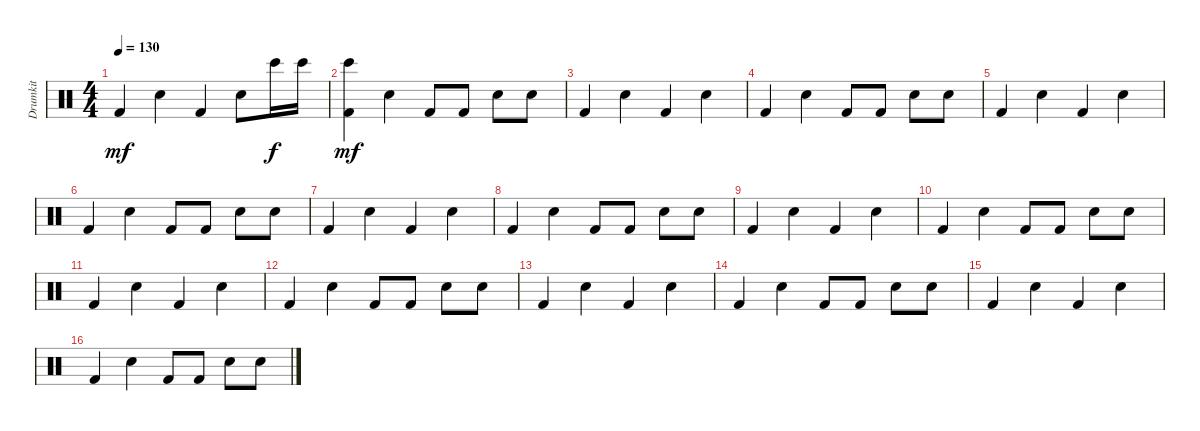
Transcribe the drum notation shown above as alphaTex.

\track ("Drumkit" "Drumkit") {instrument percussion}
\staff {score}
\articulation defaults
\ts (4 4)
\tempo 130
\clef neutral
\ks c "Kick (hit) 2".4{dy mf} "Snare (hit) 2".4 "Kick (hit) 2".4 "Snare (hit) 2".8 "Bongo High (hit)".16{dy f} "Bongo High (hit)".16
|
("Bongo High (hit)" "Kick (hit) 2").4{dy mf} "Snare (hit) 2".4 "Kick (hit) 2".8 "Kick (hit) 2".8 "Snare (hit) 2".8 "Snare (hit) 2".8 |
"Kick (hit) 2".4 "Snare (hit) 2".4 "Kick (hit) 2".4 "Snare (hit) 2".4 |
"Kick (hit) 2".4 "Snare (hit) 2".4 "Kick (hit) 2".8 "Kick (hit) 2".8 "Snare (hit) 2".8 "Snare (hit) 2".8 |
"Kick (hit) 2".4 "Snare (hit) 2".4 "Kick (hit) 2".4 "Snare (hit) 2".4 |
"Kick (hit) 2".4 "Snare (hit) 2".4 "Kick (hit) 2".8 "Kick (hit) 2".8 "Snare (hit) 2".8 "Snare (hit) 2".8 |
"Kick (hit) 2".4 "Snare (hit) 2".4 "Kick (hit) 2".4 "Snare (hit) 2".4 |
"Kick (hit) 2".4 "Snare (hit) 2".4 "Kick (hit) 2".8 "Kick (hit) 2".8 "Snare (hit) 2".8 "Snare (hit) 2".8 |
"Kick (hit) 2".4 "Snare (hit) 2".4 "Kick (hit) 2".4 "Snare (hit) 2".4 |
"Kick (hit) 2".4 "Snare (hit) 2".4 "Kick (hit) 2".8 "Kick (hit) 2".8 "Snare (hit) 2".8 "Snare (hit) 2".8 |
"Kick (hit) 2".4 "Snare (hit) 2".4 "Kick (hit) 2".4 "Snare (hit) 2".4 |
"Kick (hit) 2".4 "Snare (hit) 2".4 "Kick (hit) 2".8 "Kick (hit) 2".8 "Snare (hit) 2".8 "Snare (hit) 2".8 |
"Kick (hit) 2".4 "Snare (hit) 2".4 "Kick (hit) 2".4 "Snare (hit) 2".4 |
"Kick (hit) 2".4 "Snare (hit) 2".4 "Kick (hit) 2".8 "Kick (hit) 2".8 "Snare (hit) 2".8 "Snare (hit) 2".8 |
"Kick (hit) 2".4 "Snare (hit) 2".4 "Kick (hit) 2".4 "Snare (hit) 2".4 |
"Kick (hit) 2".4 "Snare (hit) 2".4 "Kick (hit) 2".8 "Kick (hit) 2".8 "Snare (hit) 2".8 "Snare (hit) 2".8
